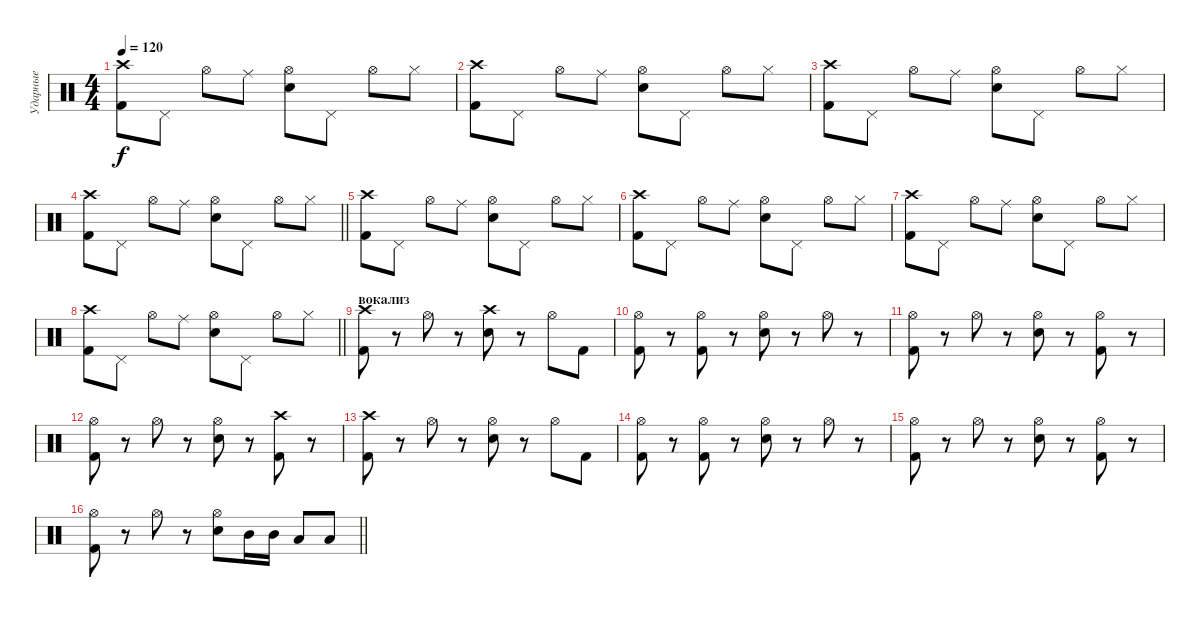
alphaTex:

\track ("Ударные" "Ударные") {instrument percussion}
\staff {score}
\articulation defaults
\ts (4 4)
\section ("" "")
\tempo 120
\clef neutral
\ks c
("Kick (hit) 2" "Crash high (hit)").8{dy f} "Pedal Hi-Hat (hit)".8 "Hi-Hat (open)".8 "Ride (middle)".8 ("Snare (hit) 2" "Hi-Hat (open)").8 "Pedal Hi-Hat (hit)".8 "Hi-Hat (open)".8 "Hi-Hat (closed)".8 |
("Kick (hit) 2" "Crash high (hit)").8 "Pedal Hi-Hat (hit)".8 "Hi-Hat (open)".8 "Ride (middle)".8 ("Snare (hit) 2" "Hi-Hat (open)").8 "Pedal Hi-Hat (hit)".8 "Hi-Hat (open)".8 "Hi-Hat (closed)".8 |
("Kick (hit) 2" "Crash high (hit)").8 "Pedal Hi-Hat (hit)".8 "Hi-Hat (open)".8 "Ride (middle)".8 ("Snare (hit) 2" "Hi-Hat (open)").8 "Pedal Hi-Hat (hit)".8 "Hi-Hat (open)".8 "Hi-Hat (closed)".8 |
\barLineRight lightlight
("Kick (hit) 2" "Crash high (hit)").8 "Pedal Hi-Hat (hit)".8 "Hi-Hat (open)".8 "Ride (middle)".8 ("Snare (hit) 2" "Hi-Hat (open)").8 "Pedal Hi-Hat (hit)".8 "Hi-Hat (open)".8 "Hi-Hat (closed)".8 |
("Kick (hit) 2" "Crash high (hit)").8 "Pedal Hi-Hat (hit)".8 "Hi-Hat (open)".8 "Ride (middle)".8 ("Snare (hit) 2" "Hi-Hat (open)").8 "Pedal Hi-Hat (hit)".8 "Hi-Hat (open)".8 "Hi-Hat (closed)".8 |
("Kick (hit) 2" "Crash high (hit)").8 "Pedal Hi-Hat (hit)".8 "Hi-Hat (open)".8 "Ride (middle)".8 ("Snare (hit) 2" "Hi-Hat (open)").8 "Pedal Hi-Hat (hit)".8 "Hi-Hat (open)".8 "Hi-Hat (closed)".8 |
("Kick (hit) 2" "Crash high (hit)").8 "Pedal Hi-Hat (hit)".8 "Hi-Hat (open)".8 "Ride (middle)".8 ("Snare (hit) 2" "Hi-Hat (open)").8 "Pedal Hi-Hat (hit)".8 "Hi-Hat (open)".8 "Hi-Hat (closed)".8 |
\barLineRight lightlight
("Kick (hit) 2" "Crash high (hit)").8 "Pedal Hi-Hat (hit)".8 "Hi-Hat (open)".8 "Ride (middle)".8 ("Snare (hit) 2" "Hi-Hat (open)").8 "Pedal Hi-Hat (hit)".8 "Hi-Hat (open)".8 "Hi-Hat (closed)".8 |
\section ("" "вокализ")
("Kick (hit) 2" "Crash high (hit)").8 r.8 "Hi-Hat (open)".8 r.8 ("Snare (hit) 2" "Crash high (hit)").8 r.8 "Hi-Hat (open)".8 "Kick (hit) 2".8 |
("Kick (hit) 2" "Hi-Hat (open)").8 r.8 ("Kick (hit) 2" "Hi-Hat (open)").8 r.8 ("Snare (hit) 2" "Hi-Hat (open)").8 r.8 "Hi-Hat (open)".8 r.8 |
("Kick (hit) 2" "Hi-Hat (open)").8 r.8 "Hi-Hat (open)".8 r.8 ("Snare (hit) 2" "Hi-Hat (open)").8 r.8 ("Kick (hit) 2" "Hi-Hat (open)").8 r.8 |
("Kick (hit) 2" "Hi-Hat (open)").8 r.8 "Hi-Hat (open)".8 r.8 ("Snare (hit) 2" "Hi-Hat (open)").8 r.8 ("Kick (hit) 2" "Crash high (hit)").8 r.8 |
("Kick (hit) 2" "Crash high (hit)").8 r.8 "Hi-Hat (open)".8 r.8 ("Snare (hit) 2" "Hi-Hat (open)").8 r.8 "Hi-Hat (open)".8 "Kick (hit) 2".8 |
("Kick (hit) 2" "Hi-Hat (open)").8 r.8 ("Kick (hit) 2" "Hi-Hat (open)").8 r.8 ("Snare (hit) 2" "Hi-Hat (open)").8 r.8 "Hi-Hat (open)".8 r.8 |
("Kick (hit) 2" "Hi-Hat (open)").8 r.8 "Hi-Hat (open)".8 r.8 ("Snare (hit) 2" "Hi-Hat (open)").8 r.8 ("Kick (hit) 2" "Hi-Hat (open)").8 r.8 |
\barLineRight lightlight
("Kick (hit) 2" "Hi-Hat (open)").8 r.8 "Hi-Hat (open)".8 r.8 ("Snare (hit) 2" "Hi-Hat (open)").8 "Mid Tom (hit)".16 "Mid Tom (hit)".16 "Low Tom (hit)".8 "Low Tom (hit)".8
